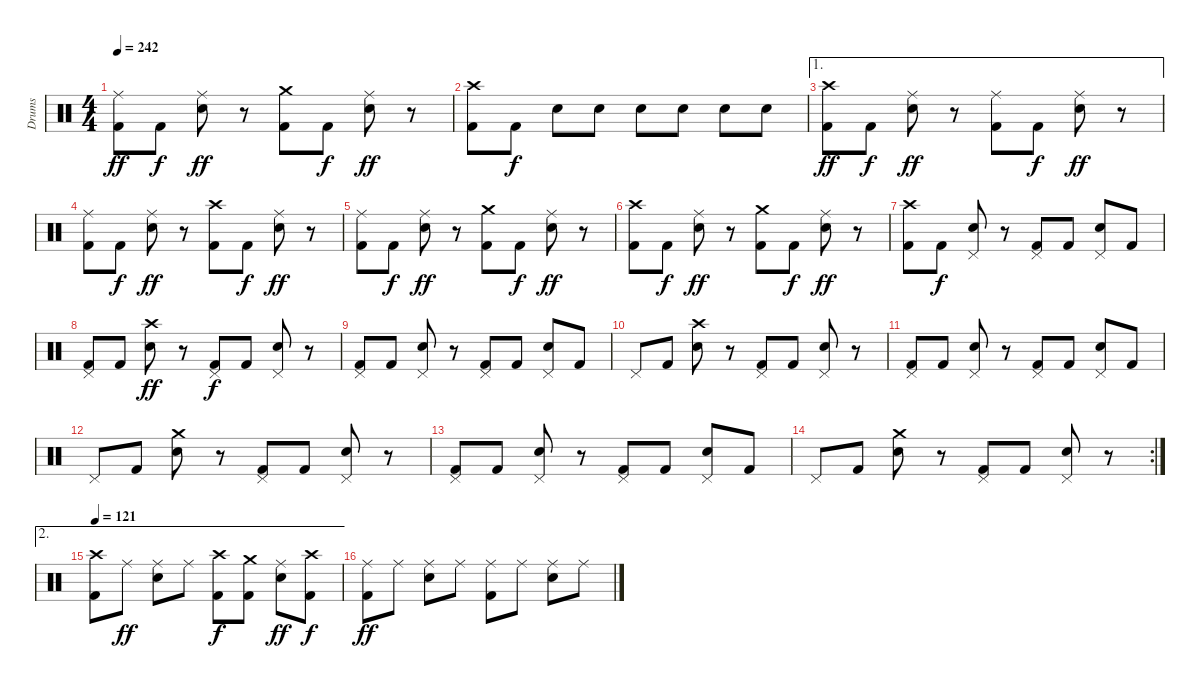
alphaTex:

\track ("Drums" "Drums") {instrument percussion}
\staff {score}
\articulation defaults
\ts (4 4)
\tempo 242
\clef neutral
\ks c
("Ride (middle)" "Kick (hit) 2").8{dy ff} "Kick (hit) 2".8{dy f} ("Ride (middle)" "Electric Snare (hit)").8{dy ff} r.8 ("Crash medium (hit)" "Kick (hit) 2").8 "Kick (hit) 2".8{dy f} ("Ride (middle)" "Electric Snare (hit)").8{dy ff} r.8 |
("Crash high (hit)" "Kick (hit) 2").8 "Kick (hit) 2".8{dy f} "Electric Snare (hit)".8 "Electric Snare (hit)".8 "Electric Snare (hit)".8 "Electric Snare (hit)".8 "Electric Snare (hit)".8 "Electric Snare (hit)".8 |
\ae 1
("Crash high (hit)" "Kick (hit) 2").8{dy ff} "Kick (hit) 2".8{dy f} ("Ride (middle)" "Electric Snare (hit)").8{dy ff} r.8 ("Ride (middle)" "Kick (hit) 2").8 "Kick (hit) 2".8{dy f} ("Ride (middle)" "Electric Snare (hit)").8{dy ff} r.8 |
("Ride (middle)" "Kick (hit) 2").8 "Kick (hit) 2".8{dy f} ("Ride (middle)" "Electric Snare (hit)").8{dy ff} r.8 ("Crash high (hit)" "Kick (hit) 2").8 "Kick (hit) 2".8{dy f} ("Ride (middle)" "Electric Snare (hit)").8{dy ff} r.8 |
("Ride (middle)" "Kick (hit) 2").8 "Kick (hit) 2".8{dy f} ("Ride (middle)" "Electric Snare (hit)").8{dy ff} r.8 ("Crash medium (hit)" "Kick (hit) 2").8 "Kick (hit) 2".8{dy f} ("Ride (middle)" "Electric Snare (hit)").8{dy ff} r.8 |
("Crash high (hit)" "Kick (hit) 2").8 "Kick (hit) 2".8{dy f} ("Ride (middle)" "Electric Snare (hit)").8{dy ff} r.8 ("Crash medium (hit)" "Kick (hit) 2").8 "Kick (hit) 2".8{dy f} ("Ride (middle)" "Electric Snare (hit)").8{dy ff} r.8 |
("Crash high (hit)" "Kick (hit) 2").8 "Kick (hit) 2".8{dy f} ("Pedal Hi-Hat (hit)" "Electric Snare (hit)").8 r.8 ("Pedal Hi-Hat (hit)" "Kick (hit) 2").8 "Kick (hit) 2".8 ("Pedal Hi-Hat (hit)" "Electric Snare (hit)").8 "Kick (hit) 2".8 |
("Pedal Hi-Hat (hit)" "Kick (hit) 2").8 "Kick (hit) 2".8 ("Electric Snare (hit)" "Crash high (hit)").8{dy ff} r.8 ("Pedal Hi-Hat (hit)" "Kick (hit) 2").8{dy f} "Kick (hit) 2".8 ("Pedal Hi-Hat (hit)" "Electric Snare (hit)").8 r.8 |
("Pedal Hi-Hat (hit)" "Kick (hit) 2").8 "Kick (hit) 2".8 ("Pedal Hi-Hat (hit)" "Electric Snare (hit)").8 r.8 ("Pedal Hi-Hat (hit)" "Kick (hit) 2").8 "Kick (hit) 2".8 ("Pedal Hi-Hat (hit)" "Electric Snare (hit)").8 "Kick (hit) 2".8 |
"Pedal Hi-Hat (hit)".8 "Kick (hit) 2".8 ("Electric Snare (hit)" "Crash high (hit)").8 r.8 ("Pedal Hi-Hat (hit)" "Kick (hit) 2").8 "Kick (hit) 2".8 ("Pedal Hi-Hat (hit)" "Electric Snare (hit)").8 r.8 |
("Pedal Hi-Hat (hit)" "Kick (hit) 2").8 "Kick (hit) 2".8 ("Pedal Hi-Hat (hit)" "Electric Snare (hit)").8 r.8 ("Pedal Hi-Hat (hit)" "Kick (hit) 2").8 "Kick (hit) 2".8 ("Pedal Hi-Hat (hit)" "Electric Snare (hit)").8 "Kick (hit) 2".8 |
"Pedal Hi-Hat (hit)".8 "Kick (hit) 2".8 ("Electric Snare (hit)" "Crash medium (hit)").8 r.8 ("Pedal Hi-Hat (hit)" "Kick (hit) 2").8 "Kick (hit) 2".8 ("Pedal Hi-Hat (hit)" "Electric Snare (hit)").8 r.8 |
("Pedal Hi-Hat (hit)" "Kick (hit) 2").8 "Kick (hit) 2".8 ("Pedal Hi-Hat (hit)" "Electric Snare (hit)").8 r.8 ("Pedal Hi-Hat (hit)" "Kick (hit) 2").8 "Kick (hit) 2".8 ("Pedal Hi-Hat (hit)" "Electric Snare (hit)").8 "Kick (hit) 2".8 |
\rc 2 "Pedal Hi-Hat (hit)".8 "Kick (hit) 2".8
("Electric Snare (hit)" "Crash medium (hit)").8 r.8 ("Pedal Hi-Hat (hit)" "Kick (hit) 2").8 "Kick (hit) 2".8 ("Pedal Hi-Hat (hit)" "Electric Snare (hit)").8 r.8 |
\ae 2
\tempo 121
("Crash high (hit)" "Kick (hit) 2").8 "Ride (middle)".8{dy ff} ("Ride (middle)" "Electric Snare (hit)").8 "Ride (middle)".8 ("Crash high (hit)" "Kick (hit) 2").8{dy f} ("Crash medium (hit)" "Kick (hit) 2").8 ("Ride (middle)" "Electric Snare (hit)").8{dy ff} ("Crash high (hit)" "Kick (hit) 2").8{dy f} |
("Ride (middle)" "Kick (hit) 2").8{dy ff} "Ride (middle)".8 ("Ride (middle)" "Electric Snare (hit)").8 "Ride (middle)".8 ("Ride (middle)" "Kick (hit) 2").8 "Ride (middle)".8 ("Ride (middle)" "Electric Snare (hit)").8 "Ride (middle)".8
